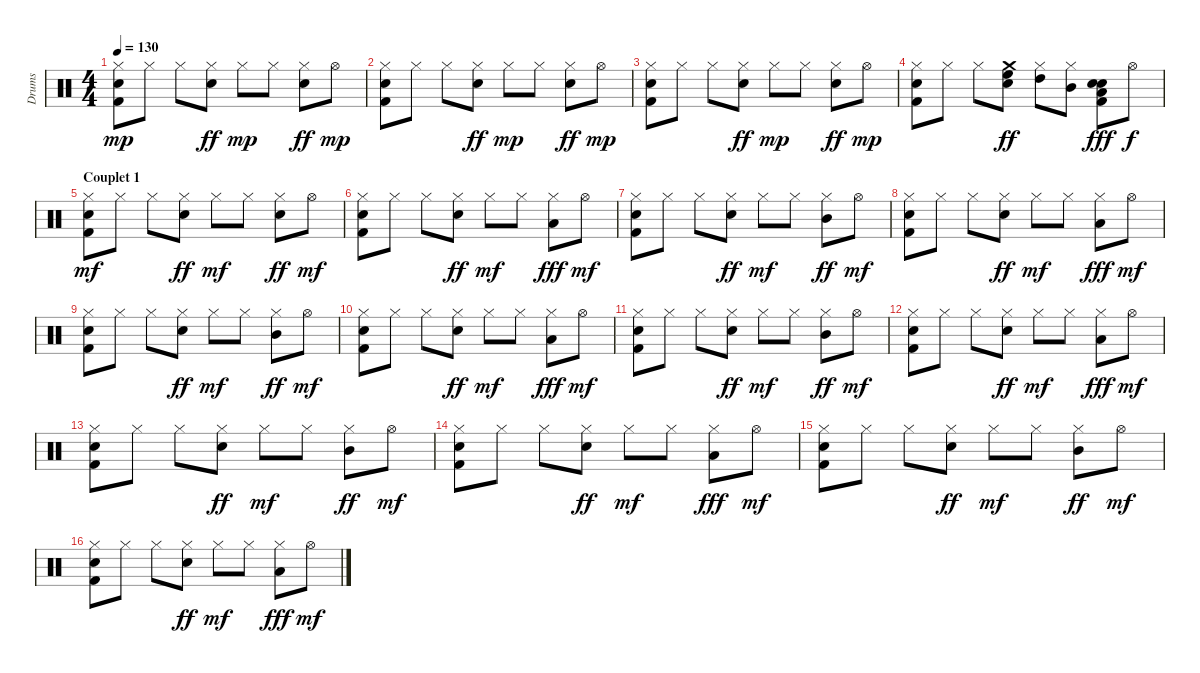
\track ("Drums" "Drums") {instrument percussion}
\staff {score}
\articulation defaults
\ts (4 4)
\tempo 130
\clef neutral
\ks c
("Hi-Hat (closed)" "Snare (hit) 2" "Kick (hit) 2").8{dy mp} "Hi-Hat (closed)".8 "Hi-Hat (closed)".8 ("Hi-Hat (closed)" "Snare (hit) 2").8{dy ff} "Hi-Hat (closed)".8{dy mp} "Hi-Hat (closed)".8 ("Hi-Hat (closed)" "Snare (hit) 2").8{dy ff} "Hi-Hat (open)".8{dy mp} |
("Hi-Hat (closed)" "Snare (hit) 2" "Kick (hit) 2").8 "Hi-Hat (closed)".8 "Hi-Hat (closed)".8 ("Hi-Hat (closed)" "Snare (hit) 2").8{dy ff} "Hi-Hat (closed)".8{dy mp} "Hi-Hat (closed)".8 ("Hi-Hat (closed)" "Snare (hit) 2").8{dy ff} "Hi-Hat (open)".8{dy mp} |
("Hi-Hat (closed)" "Snare (hit) 2" "Kick (hit) 2").8 "Hi-Hat (closed)".8 "Hi-Hat (closed)".8 ("Hi-Hat (closed)" "Snare (hit) 2").8{dy ff} "Hi-Hat (closed)".8{dy mp} "Hi-Hat (closed)".8 ("Hi-Hat (closed)" "Snare (hit) 2").8{dy ff} "Hi-Hat (open)".8{dy mp} |
("Hi-Hat (closed)" "Snare (hit) 2" "Kick (hit) 2").8 "Hi-Hat (closed)".8 "Hi-Hat (closed)".8 ("Crash medium (hit)" "High Floor Tom (hit)" "Snare (hit) 2").8{dy ff} ("Hi-Hat (closed)" "High Tom (hit)").8 ("Hi-Hat (closed)" "Mid Tom (hit)").8 ("Low Tom (hit)" "Snare (hit) 2" "Electric Snare (hit)" "Kick (hit) 2").8{dy fff} "Hi-Hat (open)".8{dy f} |
\section ("" "Couplet 1")
("Hi-Hat (closed)" "Electric Snare (hit)" "Kick (hit) 2").8{dy mf} "Hi-Hat (closed)".8 "Hi-Hat (closed)".8 ("Hi-Hat (closed)" "Electric Snare (hit)").8{dy ff} "Hi-Hat (closed)".8{dy mf} "Hi-Hat (closed)".8 ("Hi-Hat (closed)" "Electric Snare (hit)").8{dy ff} "Hi-Hat (open)".8{dy mf} |
("Hi-Hat (closed)" "Snare (hit) 2" "Kick (hit) 2").8 "Hi-Hat (closed)".8 "Hi-Hat (closed)".8 ("Hi-Hat (closed)" "Electric Snare (hit)").8{dy ff} "Hi-Hat (closed)".8{dy mf} "Hi-Hat (closed)".8 ("Hi-Hat (closed)" "Low Tom (hit)").8{dy fff} "Hi-Hat (open)".8{dy mf} |
("Hi-Hat (closed)" "Electric Snare (hit)" "Kick (hit) 2").8 "Hi-Hat (closed)".8 "Hi-Hat (closed)".8 ("Hi-Hat (closed)" "Electric Snare (hit)").8{dy ff} "Hi-Hat (closed)".8{dy mf} "Hi-Hat (closed)".8 ("Hi-Hat (closed)" "Mid Tom (hit)").8{dy ff} "Hi-Hat (open)".8{dy mf} |
("Hi-Hat (closed)" "Snare (hit) 2" "Kick (hit) 2").8 "Hi-Hat (closed)".8 "Hi-Hat (closed)".8 ("Hi-Hat (closed)" "Electric Snare (hit)").8{dy ff} "Hi-Hat (closed)".8{dy mf} "Hi-Hat (closed)".8 ("Hi-Hat (closed)" "Low Tom (hit)").8{dy fff} "Hi-Hat (open)".8{dy mf} |
("Hi-Hat (closed)" "Electric Snare (hit)" "Kick (hit) 2").8 "Hi-Hat (closed)".8 "Hi-Hat (closed)".8 ("Hi-Hat (closed)" "Electric Snare (hit)").8{dy ff} "Hi-Hat (closed)".8{dy mf} "Hi-Hat (closed)".8 ("Hi-Hat (closed)" "Mid Tom (hit)").8{dy ff} "Hi-Hat (open)".8{dy mf} |
("Hi-Hat (closed)" "Snare (hit) 2" "Kick (hit) 2").8 "Hi-Hat (closed)".8 "Hi-Hat (closed)".8 ("Hi-Hat (closed)" "Electric Snare (hit)").8{dy ff} "Hi-Hat (closed)".8{dy mf} "Hi-Hat (closed)".8 ("Hi-Hat (closed)" "Low Tom (hit)").8{dy fff} "Hi-Hat (open)".8{dy mf} |
("Hi-Hat (closed)" "Electric Snare (hit)" "Kick (hit) 2").8 "Hi-Hat (closed)".8 "Hi-Hat (closed)".8 ("Hi-Hat (closed)" "Electric Snare (hit)").8{dy ff} "Hi-Hat (closed)".8{dy mf} "Hi-Hat (closed)".8 ("Hi-Hat (closed)" "Mid Tom (hit)").8{dy ff} "Hi-Hat (open)".8{dy mf} |
("Hi-Hat (closed)" "Snare (hit) 2" "Kick (hit) 2").8 "Hi-Hat (closed)".8 "Hi-Hat (closed)".8 ("Hi-Hat (closed)" "Electric Snare (hit)").8{dy ff} "Hi-Hat (closed)".8{dy mf} "Hi-Hat (closed)".8 ("Hi-Hat (closed)" "Low Tom (hit)").8{dy fff} "Hi-Hat (open)".8{dy mf} |
("Hi-Hat (closed)" "Electric Snare (hit)" "Kick (hit) 2").8 "Hi-Hat (closed)".8 "Hi-Hat (closed)".8 ("Hi-Hat (closed)" "Electric Snare (hit)").8{dy ff} "Hi-Hat (closed)".8{dy mf} "Hi-Hat (closed)".8 ("Hi-Hat (closed)" "Mid Tom (hit)").8{dy ff} "Hi-Hat (open)".8{dy mf} |
("Hi-Hat (closed)" "Snare (hit) 2" "Kick (hit) 2").8 "Hi-Hat (closed)".8 "Hi-Hat (closed)".8 ("Hi-Hat (closed)" "Electric Snare (hit)").8{dy ff} "Hi-Hat (closed)".8{dy mf} "Hi-Hat (closed)".8 ("Hi-Hat (closed)" "Low Tom (hit)").8{dy fff} "Hi-Hat (open)".8{dy mf} |
("Hi-Hat (closed)" "Electric Snare (hit)" "Kick (hit) 2").8 "Hi-Hat (closed)".8 "Hi-Hat (closed)".8 ("Hi-Hat (closed)" "Electric Snare (hit)").8{dy ff} "Hi-Hat (closed)".8{dy mf} "Hi-Hat (closed)".8 ("Hi-Hat (closed)" "Mid Tom (hit)").8{dy ff} "Hi-Hat (open)".8{dy mf} |
("Hi-Hat (closed)" "Snare (hit) 2" "Kick (hit) 2").8 "Hi-Hat (closed)".8 "Hi-Hat (closed)".8 ("Hi-Hat (closed)" "Electric Snare (hit)").8{dy ff} "Hi-Hat (closed)".8{dy mf} "Hi-Hat (closed)".8 ("Hi-Hat (closed)" "Low Tom (hit)").8{dy fff} "Hi-Hat (open)".8{dy mf}
